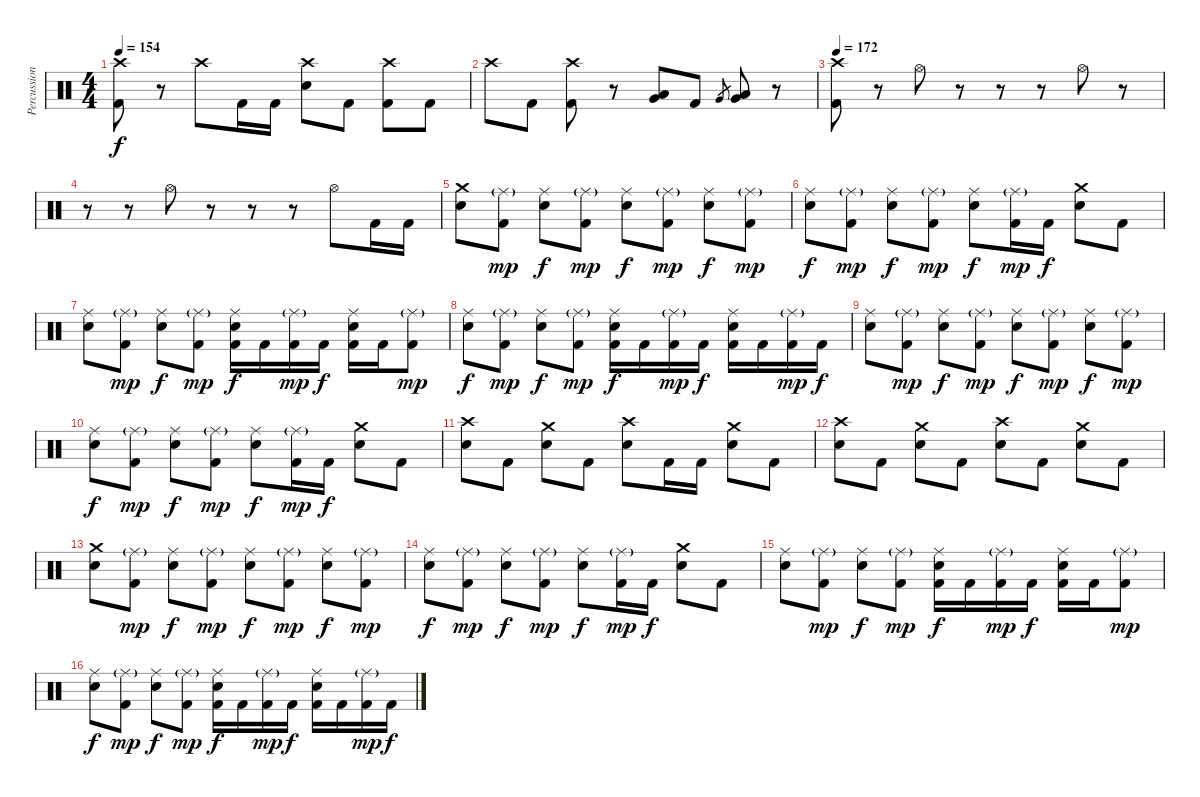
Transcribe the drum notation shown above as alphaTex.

\track ("Percussion" "Percussion") {instrument percussion}
\staff {score}
\articulation defaults
\ts (4 4)
\tempo 154
\clef neutral
\ks c
("Crash high (hit)" "Kick (hit) 2").8{dy f} r.8 "Crash high (hit)".8 "Kick (hit) 2".16 "Kick (hit) 2".16 ("Crash high (hit)" "Snare (hit) 2").8 "Kick (hit) 2".8 ("Crash high (hit)" "Kick (hit) 2").8 "Kick (hit) 2".8 |
"Crash high (hit)".8 "Kick (hit) 2".8 ("Crash high (hit)" "Kick (hit) 2").8 r.8 ("Very Low Tom (hit)" "Low Tom (hit)").8 "Kick (hit) 2".8 "Very Low Tom (hit)".8{gr} ("Low Floor Tom (hit)" "Very Low Tom (hit)").8 r.8 |
\tempo 172
("Crash high (hit)" "Kick (hit) 2").8 r.8 "Hi-Hat (open)".8 r.8 r.8 r.8 "Hi-Hat (open)".8 r.8 |
r.8 r.8 "Hi-Hat (open)".8 r.8 r.8 r.8 "Hi-Hat (open)".8 "Kick (hit) 2".16 "Kick (hit) 2".16 |
("Crash medium (hit)" "Snare (hit) 2").8 ("Ride (middle)"{g} "Kick (hit) 2").8{dy mp} ("Ride (middle)" "Snare (hit) 2").8{dy f} ("Ride (middle)"{g} "Kick (hit) 2").8{dy mp} ("Ride (middle)" "Snare (hit) 2").8{dy f} ("Ride (middle)"{g} "Kick (hit) 2").8{dy mp} ("Ride (middle)" "Snare (hit) 2").8{dy f} ("Ride (middle)"{g} "Kick (hit) 2").8{dy mp} |
("Ride (middle)" "Snare (hit) 2").8{dy f} ("Ride (middle)"{g} "Kick (hit) 2").8{dy mp} ("Ride (middle)" "Snare (hit) 2").8{dy f} ("Ride (middle)"{g} "Kick (hit) 2").8{dy mp} ("Ride (middle)" "Snare (hit) 2").8{dy f} ("Ride (middle)"{g} "Kick (hit) 2").16{dy mp} "Kick (hit) 2".16{dy f} ("Crash medium (hit)" "Snare (hit) 2").8 "Kick (hit) 2".8 |
("Ride (middle)" "Snare (hit) 2").8 ("Ride (middle)"{g} "Kick (hit) 2").8{dy mp} ("Ride (middle)" "Snare (hit) 2").8{dy f} ("Ride (middle)"{g} "Kick (hit) 2").8{dy mp} ("Ride (middle)" "Snare (hit) 2" "Kick (hit) 2").16{dy f} "Kick (hit) 2".16 ("Ride (middle)"{g} "Kick (hit) 2").16{dy mp} "Kick (hit) 2".16{dy f} ("Ride (middle)" "Snare (hit) 2" "Kick (hit) 2").16 "Kick (hit) 2".16 ("Ride (middle)"{g} "Kick (hit) 2").8{dy mp} |
("Ride (middle)" "Snare (hit) 2").8{dy f} ("Ride (middle)"{g} "Kick (hit) 2").8{dy mp} ("Ride (middle)" "Snare (hit) 2").8{dy f} ("Ride (middle)"{g} "Kick (hit) 2").8{dy mp} ("Ride (middle)" "Snare (hit) 2" "Kick (hit) 2").16{dy f} "Kick (hit) 2".16 ("Ride (middle)"{g} "Kick (hit) 2").16{dy mp} "Kick (hit) 2".16{dy f} ("Ride (middle)" "Snare (hit) 2" "Kick (hit) 2").16 "Kick (hit) 2".16 ("Ride (middle)"{g} "Kick (hit) 2").16{dy mp} "Kick (hit) 2".16{dy f} |
("Ride (middle)" "Snare (hit) 2").8 ("Ride (middle)"{g} "Kick (hit) 2").8{dy mp} ("Ride (middle)" "Snare (hit) 2").8{dy f} ("Ride (middle)"{g} "Kick (hit) 2").8{dy mp} ("Ride (middle)" "Snare (hit) 2").8{dy f} ("Ride (middle)"{g} "Kick (hit) 2").8{dy mp} ("Ride (middle)" "Snare (hit) 2").8{dy f} ("Ride (middle)"{g} "Kick (hit) 2").8{dy mp} |
("Ride (middle)" "Snare (hit) 2").8{dy f} ("Ride (middle)"{g} "Kick (hit) 2").8{dy mp} ("Ride (middle)" "Snare (hit) 2").8{dy f} ("Ride (middle)"{g} "Kick (hit) 2").8{dy mp} ("Ride (middle)" "Snare (hit) 2").8{dy f} ("Ride (middle)"{g} "Kick (hit) 2").16{dy mp} "Kick (hit) 2".16{dy f} ("Crash medium (hit)" "Snare (hit) 2").8 "Kick (hit) 2".8 |
("Crash high (hit)" "Snare (hit) 2").8 "Kick (hit) 2".8 ("Crash medium (hit)" "Snare (hit) 2").8 "Kick (hit) 2".8 ("Crash high (hit)" "Snare (hit) 2").8 "Kick (hit) 2".16 "Kick (hit) 2".16 ("Crash medium (hit)" "Snare (hit) 2").8 "Kick (hit) 2".8 |
("Crash high (hit)" "Snare (hit) 2").8 "Kick (hit) 2".8 ("Crash medium (hit)" "Snare (hit) 2").8 "Kick (hit) 2".8 ("Crash high (hit)" "Snare (hit) 2").8 "Kick (hit) 2".8 ("Crash medium (hit)" "Snare (hit) 2").8 "Kick (hit) 2".8 |
("Crash medium (hit)" "Snare (hit) 2").8 ("Ride (middle)"{g} "Kick (hit) 2").8{dy mp} ("Ride (middle)" "Snare (hit) 2").8{dy f} ("Ride (middle)"{g} "Kick (hit) 2").8{dy mp} ("Ride (middle)" "Snare (hit) 2").8{dy f} ("Ride (middle)"{g} "Kick (hit) 2").8{dy mp} ("Ride (middle)" "Snare (hit) 2").8{dy f} ("Ride (middle)"{g} "Kick (hit) 2").8{dy mp} |
("Ride (middle)" "Snare (hit) 2").8{dy f} ("Ride (middle)"{g} "Kick (hit) 2").8{dy mp} ("Ride (middle)" "Snare (hit) 2").8{dy f} ("Ride (middle)"{g} "Kick (hit) 2").8{dy mp} ("Ride (middle)" "Snare (hit) 2").8{dy f} ("Ride (middle)"{g} "Kick (hit) 2").16{dy mp} "Kick (hit) 2".16{dy f} ("Crash medium (hit)" "Snare (hit) 2").8 "Kick (hit) 2".8 |
("Ride (middle)" "Snare (hit) 2").8 ("Ride (middle)"{g} "Kick (hit) 2").8{dy mp} ("Ride (middle)" "Snare (hit) 2").8{dy f} ("Ride (middle)"{g} "Kick (hit) 2").8{dy mp} ("Ride (middle)" "Snare (hit) 2" "Kick (hit) 2").16{dy f} "Kick (hit) 2".16 ("Ride (middle)"{g} "Kick (hit) 2").16{dy mp} "Kick (hit) 2".16{dy f} ("Ride (middle)" "Snare (hit) 2" "Kick (hit) 2").16 "Kick (hit) 2".16 ("Ride (middle)"{g} "Kick (hit) 2").8{dy mp} |
("Ride (middle)" "Snare (hit) 2").8{dy f} ("Ride (middle)"{g} "Kick (hit) 2").8{dy mp} ("Ride (middle)" "Snare (hit) 2").8{dy f} ("Ride (middle)"{g} "Kick (hit) 2").8{dy mp} ("Ride (middle)" "Snare (hit) 2" "Kick (hit) 2").16{dy f} "Kick (hit) 2".16 ("Ride (middle)"{g} "Kick (hit) 2").16{dy mp} "Kick (hit) 2".16{dy f} ("Ride (middle)" "Snare (hit) 2" "Kick (hit) 2").16 "Kick (hit) 2".16 ("Ride (middle)"{g} "Kick (hit) 2").16{dy mp} "Kick (hit) 2".16{dy f}
